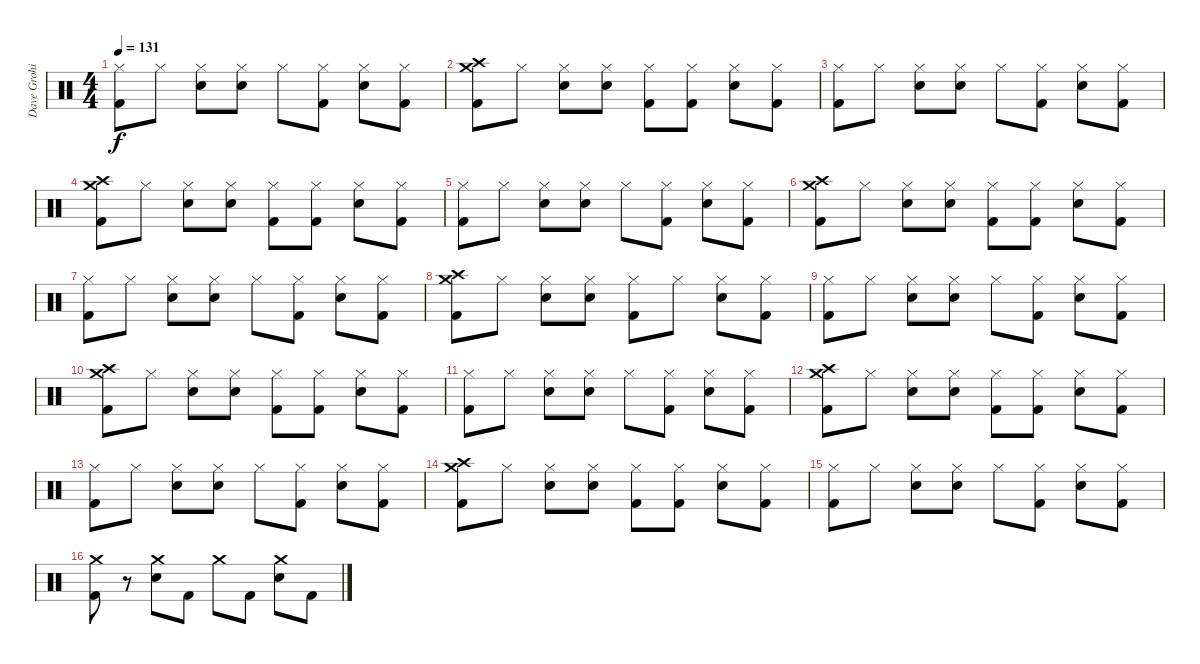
\track ("Dave Grohi" "Dave Grohi") {instrument percussion}
\staff {score}
\articulation defaults
\ts (4 4)
\tempo 131
\clef neutral
\ks c
("Hi-Hat (closed)" "Kick (hit) 2").8{dy f} "Hi-Hat (closed)".8 ("Hi-Hat (closed)" "Snare (hit) 2").8 ("Hi-Hat (closed)" "Snare (hit) 2").8 "Hi-Hat (closed)".8 ("Hi-Hat (closed)" "Kick (hit) 2").8 ("Hi-Hat (closed)" "Snare (hit) 2").8 ("Hi-Hat (closed)" "Kick (hit) 2").8 |
("Crash high (hit)" "Crash medium (hit)" "Kick (hit) 2").8 "Hi-Hat (closed)".8 ("Hi-Hat (closed)" "Snare (hit) 2").8 ("Hi-Hat (closed)" "Snare (hit) 2").8 ("Hi-Hat (closed)" "Kick (hit) 2").8 ("Hi-Hat (closed)" "Kick (hit) 2").8 ("Hi-Hat (closed)" "Snare (hit) 2").8 ("Hi-Hat (closed)" "Kick (hit) 2").8 |
("Hi-Hat (closed)" "Kick (hit) 2").8 "Hi-Hat (closed)".8 ("Hi-Hat (closed)" "Snare (hit) 2").8 ("Hi-Hat (closed)" "Snare (hit) 2").8 "Hi-Hat (closed)".8 ("Hi-Hat (closed)" "Kick (hit) 2").8 ("Hi-Hat (closed)" "Snare (hit) 2").8 ("Hi-Hat (closed)" "Kick (hit) 2").8 |
("Crash high (hit)" "Crash medium (hit)" "Kick (hit) 2").8 "Hi-Hat (closed)".8 ("Hi-Hat (closed)" "Snare (hit) 2").8 ("Hi-Hat (closed)" "Snare (hit) 2").8 ("Hi-Hat (closed)" "Kick (hit) 2").8 ("Hi-Hat (closed)" "Kick (hit) 2").8 ("Hi-Hat (closed)" "Snare (hit) 2").8 ("Hi-Hat (closed)" "Kick (hit) 2").8 |
("Hi-Hat (closed)" "Kick (hit) 2").8 "Hi-Hat (closed)".8 ("Hi-Hat (closed)" "Snare (hit) 2").8 ("Hi-Hat (closed)" "Snare (hit) 2").8 "Hi-Hat (closed)".8 ("Hi-Hat (closed)" "Kick (hit) 2").8 ("Hi-Hat (closed)" "Snare (hit) 2").8 ("Hi-Hat (closed)" "Kick (hit) 2").8 |
("Crash high (hit)" "Crash medium (hit)" "Kick (hit) 2").8 "Hi-Hat (closed)".8 ("Hi-Hat (closed)" "Snare (hit) 2").8 ("Hi-Hat (closed)" "Snare (hit) 2").8 ("Hi-Hat (closed)" "Kick (hit) 2").8 ("Hi-Hat (closed)" "Kick (hit) 2").8 ("Hi-Hat (closed)" "Snare (hit) 2").8 ("Hi-Hat (closed)" "Kick (hit) 2").8 |
("Hi-Hat (closed)" "Kick (hit) 2").8 "Hi-Hat (closed)".8 ("Hi-Hat (closed)" "Snare (hit) 2").8 ("Hi-Hat (closed)" "Snare (hit) 2").8 "Hi-Hat (closed)".8 ("Hi-Hat (closed)" "Kick (hit) 2").8 ("Hi-Hat (closed)" "Snare (hit) 2").8 ("Hi-Hat (closed)" "Kick (hit) 2").8 |
("Crash high (hit)" "Crash medium (hit)" "Kick (hit) 2").8 "Hi-Hat (closed)".8 ("Hi-Hat (closed)" "Snare (hit) 2").8 ("Hi-Hat (closed)" "Snare (hit) 2").8 ("Hi-Hat (closed)" "Kick (hit) 2").8 "Hi-Hat (closed)".8 ("Hi-Hat (closed)" "Snare (hit) 2").8 ("Hi-Hat (closed)" "Kick (hit) 2").8 |
("Hi-Hat (closed)" "Kick (hit) 2").8 "Hi-Hat (closed)".8 ("Hi-Hat (closed)" "Snare (hit) 2").8 ("Hi-Hat (closed)" "Snare (hit) 2").8 "Hi-Hat (closed)".8 ("Hi-Hat (closed)" "Kick (hit) 2").8 ("Hi-Hat (closed)" "Snare (hit) 2").8 ("Hi-Hat (closed)" "Kick (hit) 2").8 |
("Crash high (hit)" "Crash medium (hit)" "Kick (hit) 2").8 "Hi-Hat (closed)".8 ("Hi-Hat (closed)" "Snare (hit) 2").8 ("Hi-Hat (closed)" "Snare (hit) 2").8 ("Hi-Hat (closed)" "Kick (hit) 2").8 ("Hi-Hat (closed)" "Kick (hit) 2").8 ("Hi-Hat (closed)" "Snare (hit) 2").8 ("Hi-Hat (closed)" "Kick (hit) 2").8 |
("Hi-Hat (closed)" "Kick (hit) 2").8 "Hi-Hat (closed)".8 ("Hi-Hat (closed)" "Snare (hit) 2").8 ("Hi-Hat (closed)" "Snare (hit) 2").8 "Hi-Hat (closed)".8 ("Hi-Hat (closed)" "Kick (hit) 2").8 ("Hi-Hat (closed)" "Snare (hit) 2").8 ("Hi-Hat (closed)" "Kick (hit) 2").8 |
("Crash high (hit)" "Crash medium (hit)" "Kick (hit) 2").8 "Hi-Hat (closed)".8 ("Hi-Hat (closed)" "Snare (hit) 2").8 ("Hi-Hat (closed)" "Snare (hit) 2").8 ("Hi-Hat (closed)" "Kick (hit) 2").8 ("Hi-Hat (closed)" "Kick (hit) 2").8 ("Hi-Hat (closed)" "Snare (hit) 2").8 ("Hi-Hat (closed)" "Kick (hit) 2").8 |
("Hi-Hat (closed)" "Kick (hit) 2").8 "Hi-Hat (closed)".8 ("Hi-Hat (closed)" "Snare (hit) 2").8 ("Hi-Hat (closed)" "Snare (hit) 2").8 "Hi-Hat (closed)".8 ("Hi-Hat (closed)" "Kick (hit) 2").8 ("Hi-Hat (closed)" "Snare (hit) 2").8 ("Hi-Hat (closed)" "Kick (hit) 2").8 |
("Crash high (hit)" "Crash medium (hit)" "Kick (hit) 2").8 "Hi-Hat (closed)".8 ("Hi-Hat (closed)" "Snare (hit) 2").8 ("Hi-Hat (closed)" "Snare (hit) 2").8 ("Hi-Hat (closed)" "Kick (hit) 2").8 ("Hi-Hat (closed)" "Kick (hit) 2").8 ("Hi-Hat (closed)" "Snare (hit) 2").8 ("Hi-Hat (closed)" "Kick (hit) 2").8 |
("Hi-Hat (closed)" "Kick (hit) 2").8 "Hi-Hat (closed)".8 ("Hi-Hat (closed)" "Snare (hit) 2").8 ("Hi-Hat (closed)" "Snare (hit) 2").8 "Hi-Hat (closed)".8 ("Hi-Hat (closed)" "Kick (hit) 2").8 ("Hi-Hat (closed)" "Snare (hit) 2").8 ("Hi-Hat (closed)" "Kick (hit) 2").8 |
("Crash medium (hit)" "Kick (hit) 2").8 r.8 ("Crash medium (hit)" "Snare (hit) 2").8 "Kick (hit) 2".8 "Crash medium (hit)".8 "Kick (hit) 2".8 ("Crash medium (hit)" "Snare (hit) 2").8 "Kick (hit) 2".8
